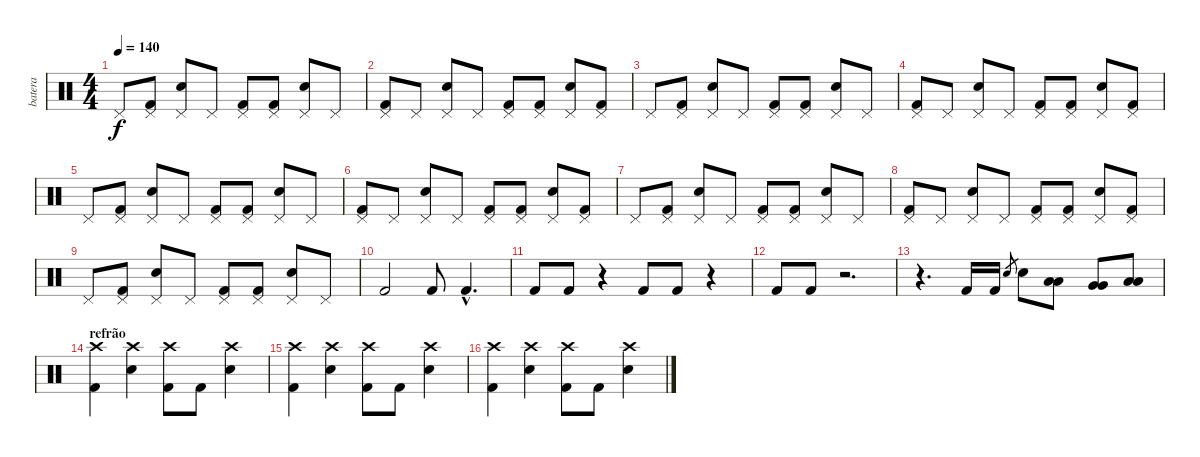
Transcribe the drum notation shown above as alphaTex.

\track ("batera" "batera") {instrument percussion}
\staff {score}
\articulation defaults
\ts (4 4)
\tempo 140
\clef neutral
\ks c "Pedal Hi-Hat (hit)".8{dy f}
("Kick (hit) 2" "Pedal Hi-Hat (hit)").8 ("Snare (hit) 2" "Pedal Hi-Hat (hit)").8 "Pedal Hi-Hat (hit)".8 ("Kick (hit) 2" "Pedal Hi-Hat (hit)").8 ("Kick (hit) 2" "Pedal Hi-Hat (hit)").8 ("Snare (hit) 2" "Pedal Hi-Hat (hit)").8 "Pedal Hi-Hat (hit)".8 |
("Kick (hit) 2" "Pedal Hi-Hat (hit)").8 "Pedal Hi-Hat (hit)".8 ("Snare (hit) 2" "Pedal Hi-Hat (hit)").8 "Pedal Hi-Hat (hit)".8 ("Kick (hit) 2" "Pedal Hi-Hat (hit)").8 ("Kick (hit) 2" "Pedal Hi-Hat (hit)").8 ("Snare (hit) 2" "Pedal Hi-Hat (hit)").8 ("Kick (hit) 2" "Pedal Hi-Hat (hit)").8 |
"Pedal Hi-Hat (hit)".8 ("Kick (hit) 2" "Pedal Hi-Hat (hit)").8 ("Snare (hit) 2" "Pedal Hi-Hat (hit)").8 "Pedal Hi-Hat (hit)".8 ("Kick (hit) 2" "Pedal Hi-Hat (hit)").8 ("Kick (hit) 2" "Pedal Hi-Hat (hit)").8 ("Snare (hit) 2" "Pedal Hi-Hat (hit)").8 "Pedal Hi-Hat (hit)".8 |
("Kick (hit) 2" "Pedal Hi-Hat (hit)").8 "Pedal Hi-Hat (hit)".8 ("Snare (hit) 2" "Pedal Hi-Hat (hit)").8 "Pedal Hi-Hat (hit)".8 ("Kick (hit) 2" "Pedal Hi-Hat (hit)").8 ("Kick (hit) 2" "Pedal Hi-Hat (hit)").8 ("Snare (hit) 2" "Pedal Hi-Hat (hit)").8 ("Kick (hit) 2" "Pedal Hi-Hat (hit)").8 |
"Pedal Hi-Hat (hit)".8 ("Kick (hit) 2" "Pedal Hi-Hat (hit)").8 ("Snare (hit) 2" "Pedal Hi-Hat (hit)").8 "Pedal Hi-Hat (hit)".8 ("Kick (hit) 2" "Pedal Hi-Hat (hit)").8 ("Kick (hit) 2" "Pedal Hi-Hat (hit)").8 ("Snare (hit) 2" "Pedal Hi-Hat (hit)").8 "Pedal Hi-Hat (hit)".8 |
("Kick (hit) 2" "Pedal Hi-Hat (hit)").8 "Pedal Hi-Hat (hit)".8 ("Snare (hit) 2" "Pedal Hi-Hat (hit)").8 "Pedal Hi-Hat (hit)".8 ("Kick (hit) 2" "Pedal Hi-Hat (hit)").8 ("Kick (hit) 2" "Pedal Hi-Hat (hit)").8 ("Snare (hit) 2" "Pedal Hi-Hat (hit)").8 ("Kick (hit) 2" "Pedal Hi-Hat (hit)").8 |
"Pedal Hi-Hat (hit)".8 ("Kick (hit) 2" "Pedal Hi-Hat (hit)").8 ("Snare (hit) 2" "Pedal Hi-Hat (hit)").8 "Pedal Hi-Hat (hit)".8 ("Kick (hit) 2" "Pedal Hi-Hat (hit)").8 ("Kick (hit) 2" "Pedal Hi-Hat (hit)").8 ("Snare (hit) 2" "Pedal Hi-Hat (hit)").8 "Pedal Hi-Hat (hit)".8 |
("Kick (hit) 2" "Pedal Hi-Hat (hit)").8 "Pedal Hi-Hat (hit)".8 ("Snare (hit) 2" "Pedal Hi-Hat (hit)").8 "Pedal Hi-Hat (hit)".8 ("Kick (hit) 2" "Pedal Hi-Hat (hit)").8 ("Kick (hit) 2" "Pedal Hi-Hat (hit)").8 ("Snare (hit) 2" "Pedal Hi-Hat (hit)").8 ("Kick (hit) 2" "Pedal Hi-Hat (hit)").8 |
"Pedal Hi-Hat (hit)".8 ("Kick (hit) 2" "Pedal Hi-Hat (hit)").8 ("Snare (hit) 2" "Pedal Hi-Hat (hit)").8 "Pedal Hi-Hat (hit)".8 ("Kick (hit) 2" "Pedal Hi-Hat (hit)").8 ("Kick (hit) 2" "Pedal Hi-Hat (hit)").8 ("Snare (hit) 2" "Pedal Hi-Hat (hit)").8 "Pedal Hi-Hat (hit)".8 |
"Kick (hit) 2".2 "Kick (hit) 2".8 "Kick (hit) 2"{hac}.4{d} |
"Kick (hit) 2".8 "Kick (hit) 2".8 r.4 "Kick (hit) 2".8 "Kick (hit) 2".8 r.4 |
"Kick (hit) 2".8 "Kick (hit) 2".8 r.2{d} |
r.4{d} "Kick (hit) 2".16 "Kick (hit) 2".16 "Snare (hit) 2".8{gr} "Snare (hit) 2".8 ("Low Tom (hit)" "Low Tom (hit)").8 ("Very Low Tom (hit)" "Very Low Tom (hit)").8 ("Low Floor Tom (hit)" "Low Floor Tom (hit)").8 |
\section ("" "refrão")
("Crash high (hit)" "Kick (hit) 2").4 ("Crash high (hit)" "Snare (hit) 2").4 ("Crash high (hit)" "Kick (hit) 2").8 "Kick (hit) 2".8 ("Crash high (hit)" "Snare (hit) 2").4 |
("Crash high (hit)" "Kick (hit) 2").4 ("Crash high (hit)" "Snare (hit) 2").4 ("Crash high (hit)" "Kick (hit) 2").8 "Kick (hit) 2".8 ("Crash high (hit)" "Snare (hit) 2").4 |
("Crash high (hit)" "Kick (hit) 2").4 ("Crash high (hit)" "Snare (hit) 2").4 ("Crash high (hit)" "Kick (hit) 2").8 "Kick (hit) 2".8 ("Crash high (hit)" "Snare (hit) 2").4
